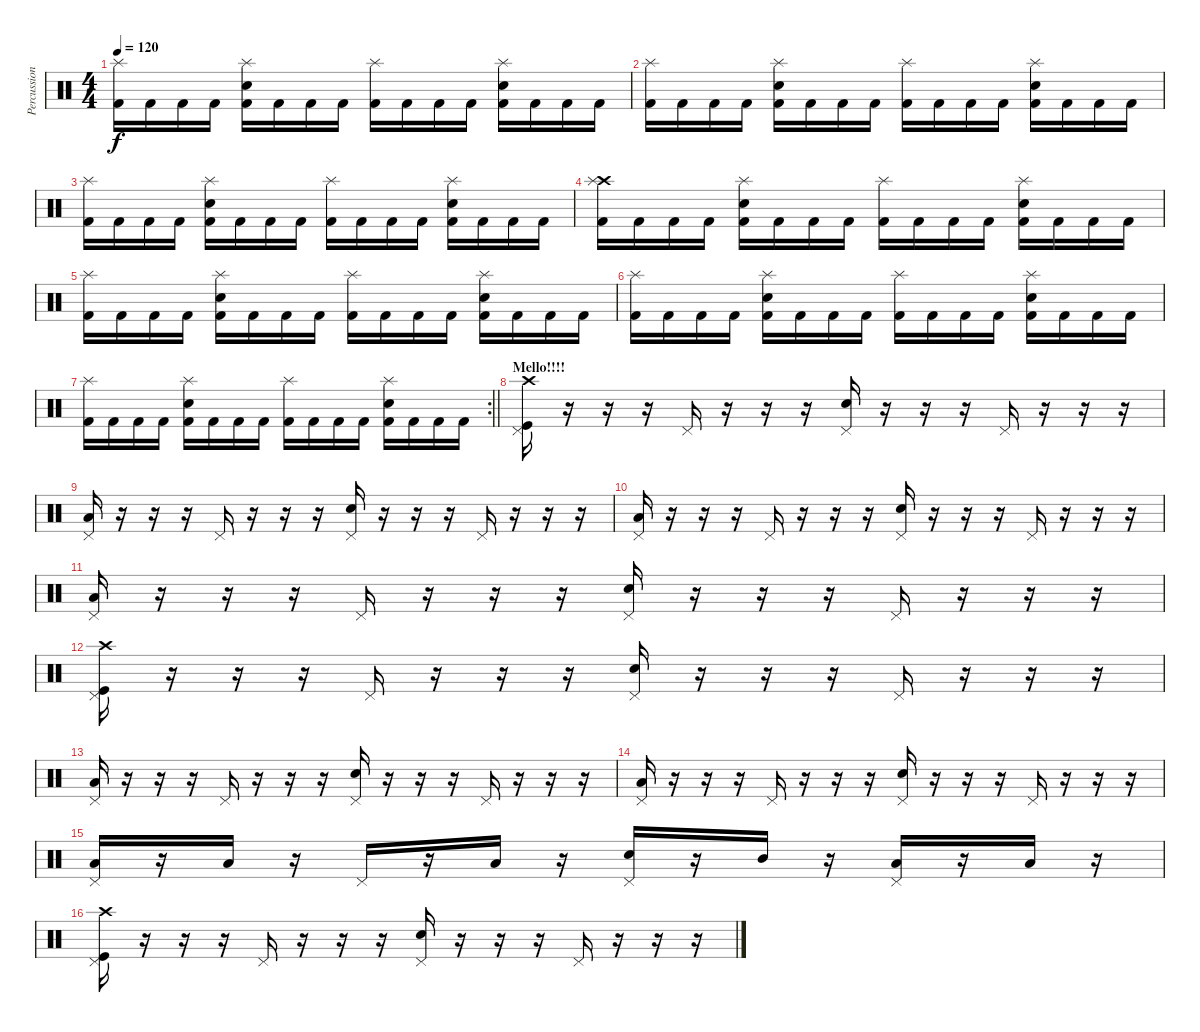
\track ("Percussion" "Percussion") {instrument percussion}
\staff {score}
\articulation defaults
\ts (4 4)
\tempo 120
\clef neutral
\ks c
("Splash (hit)" "Kick (hit) 2").16{dy f} "Kick (hit) 2".16 "Kick (hit) 2".16 "Kick (hit) 2".16 ("Splash (hit)" "Electric Snare (hit)" "Kick (hit) 2").16 "Kick (hit) 2".16 "Kick (hit) 2".16 "Kick (hit) 2".16 ("Splash (hit)" "Kick (hit) 2").16 "Kick (hit) 2".16 "Kick (hit) 2".16 "Kick (hit) 2".16 ("Splash (hit)" "Electric Snare (hit)" "Kick (hit) 2").16 "Kick (hit) 2".16 "Kick (hit) 2".16 "Kick (hit) 2".16 |
("Splash (hit)" "Kick (hit) 2").16 "Kick (hit) 2".16 "Kick (hit) 2".16 "Kick (hit) 2".16 ("Splash (hit)" "Electric Snare (hit)" "Kick (hit) 2").16 "Kick (hit) 2".16 "Kick (hit) 2".16 "Kick (hit) 2".16 ("Splash (hit)" "Kick (hit) 2").16 "Kick (hit) 2".16 "Kick (hit) 2".16 "Kick (hit) 2".16 ("Splash (hit)" "Electric Snare (hit)" "Kick (hit) 2").16 "Kick (hit) 2".16 "Kick (hit) 2".16 "Kick (hit) 2".16 |
("Splash (hit)" "Kick (hit) 2").16 "Kick (hit) 2".16 "Kick (hit) 2".16 "Kick (hit) 2".16 ("Splash (hit)" "Electric Snare (hit)" "Kick (hit) 2").16 "Kick (hit) 2".16 "Kick (hit) 2".16 "Kick (hit) 2".16 ("Splash (hit)" "Kick (hit) 2").16 "Kick (hit) 2".16 "Kick (hit) 2".16 "Kick (hit) 2".16 ("Splash (hit)" "Electric Snare (hit)" "Kick (hit) 2").16 "Kick (hit) 2".16 "Kick (hit) 2".16 "Kick (hit) 2".16 |
("Crash high (hit)" "Splash (hit)" "Kick (hit) 2").16 "Kick (hit) 2".16 "Kick (hit) 2".16 "Kick (hit) 2".16 ("Splash (hit)" "Electric Snare (hit)" "Kick (hit) 2").16 "Kick (hit) 2".16 "Kick (hit) 2".16 "Kick (hit) 2".16 ("Splash (hit)" "Kick (hit) 2").16 "Kick (hit) 2".16 "Kick (hit) 2".16 "Kick (hit) 2".16 ("Splash (hit)" "Electric Snare (hit)" "Kick (hit) 2").16 "Kick (hit) 2".16 "Kick (hit) 2".16 "Kick (hit) 2".16 |
("Splash (hit)" "Kick (hit) 2").16 "Kick (hit) 2".16 "Kick (hit) 2".16 "Kick (hit) 2".16 ("Splash (hit)" "Electric Snare (hit)" "Kick (hit) 2").16 "Kick (hit) 2".16 "Kick (hit) 2".16 "Kick (hit) 2".16 ("Splash (hit)" "Kick (hit) 2").16 "Kick (hit) 2".16 "Kick (hit) 2".16 "Kick (hit) 2".16 ("Splash (hit)" "Electric Snare (hit)" "Kick (hit) 2").16 "Kick (hit) 2".16 "Kick (hit) 2".16 "Kick (hit) 2".16 |
("Splash (hit)" "Kick (hit) 2").16 "Kick (hit) 2".16 "Kick (hit) 2".16 "Kick (hit) 2".16 ("Splash (hit)" "Electric Snare (hit)" "Kick (hit) 2").16 "Kick (hit) 2".16 "Kick (hit) 2".16 "Kick (hit) 2".16 ("Splash (hit)" "Kick (hit) 2").16 "Kick (hit) 2".16 "Kick (hit) 2".16 "Kick (hit) 2".16 ("Splash (hit)" "Electric Snare (hit)" "Kick (hit) 2").16 "Kick (hit) 2".16 "Kick (hit) 2".16 "Kick (hit) 2".16 |
\rc 2
\barLineRight lightlight
("Splash (hit)" "Kick (hit) 2").16 "Kick (hit) 2".16 "Kick (hit) 2".16 "Kick (hit) 2".16 ("Splash (hit)" "Electric Snare (hit)" "Kick (hit) 2").16 "Kick (hit) 2".16 "Kick (hit) 2".16 "Kick (hit) 2".16 ("Splash (hit)" "Kick (hit) 2").16 "Kick (hit) 2".16 "Kick (hit) 2".16 "Kick (hit) 2".16 ("Splash (hit)" "Electric Snare (hit)" "Kick (hit) 2").16 "Kick (hit) 2".16 "Kick (hit) 2".16 "Kick (hit) 2".16 |
\section ("" "Mello!!!!")
("Crash high (hit)" "Pedal Hi-Hat (hit)" "Kick (hit)").16 r.16 r.16 r.16 "Pedal Hi-Hat (hit)".16 r.16 r.16 r.16 ("Pedal Hi-Hat (hit)" "Electric Snare (hit)").16 r.16 r.16 r.16 "Pedal Hi-Hat (hit)".16 r.16 r.16 r.16 |
("Pedal Hi-Hat (hit)" "Low Tom (hit)").16 r.16 r.16 r.16 "Pedal Hi-Hat (hit)".16 r.16 r.16 r.16 ("Pedal Hi-Hat (hit)" "Electric Snare (hit)").16 r.16 r.16 r.16 "Pedal Hi-Hat (hit)".16 r.16 r.16 r.16 |
("Pedal Hi-Hat (hit)" "Low Tom (hit)").16 r.16 r.16 r.16 "Pedal Hi-Hat (hit)".16 r.16 r.16 r.16 ("Pedal Hi-Hat (hit)" "Electric Snare (hit)").16 r.16 r.16 r.16 "Pedal Hi-Hat (hit)".16 r.16 r.16 r.16 |
("Pedal Hi-Hat (hit)" "Low Tom (hit)").16 r.16 r.16 r.16 "Pedal Hi-Hat (hit)".16 r.16 r.16 r.16 ("Pedal Hi-Hat (hit)" "Electric Snare (hit)").16 r.16 r.16 r.16 "Pedal Hi-Hat (hit)".16 r.16 r.16 r.16 |
("Crash high (hit)" "Pedal Hi-Hat (hit)" "Kick (hit)").16 r.16 r.16 r.16 "Pedal Hi-Hat (hit)".16 r.16 r.16 r.16 ("Pedal Hi-Hat (hit)" "Electric Snare (hit)").16 r.16 r.16 r.16 "Pedal Hi-Hat (hit)".16 r.16 r.16 r.16 |
("Pedal Hi-Hat (hit)" "Low Tom (hit)").16 r.16 r.16 r.16 "Pedal Hi-Hat (hit)".16 r.16 r.16 r.16 ("Pedal Hi-Hat (hit)" "Electric Snare (hit)").16 r.16 r.16 r.16 "Pedal Hi-Hat (hit)".16 r.16 r.16 r.16 |
("Pedal Hi-Hat (hit)" "Low Tom (hit)").16 r.16 r.16 r.16 "Pedal Hi-Hat (hit)".16 r.16 r.16 r.16 ("Pedal Hi-Hat (hit)" "Electric Snare (hit)").16 r.16 r.16 r.16 "Pedal Hi-Hat (hit)".16 r.16 r.16 r.16 |
("Pedal Hi-Hat (hit)" "Low Tom (hit)").16 r.16 "Low Tom (hit)".16 r.16 "Pedal Hi-Hat (hit)".16 r.16 "Low Tom (hit)".16 r.16 ("Pedal Hi-Hat (hit)" "Electric Snare (hit)").16 r.16 "Mid Tom (hit)".16 r.16 ("Pedal Hi-Hat (hit)" "Low Tom (hit)").16 r.16 "Low Tom (hit)".16 r.16 |
("Crash high (hit)" "Pedal Hi-Hat (hit)" "Kick (hit)").16 r.16 r.16 r.16 "Pedal Hi-Hat (hit)".16 r.16 r.16 r.16 ("Pedal Hi-Hat (hit)" "Electric Snare (hit)").16 r.16 r.16 r.16 "Pedal Hi-Hat (hit)".16 r.16 r.16 r.16
